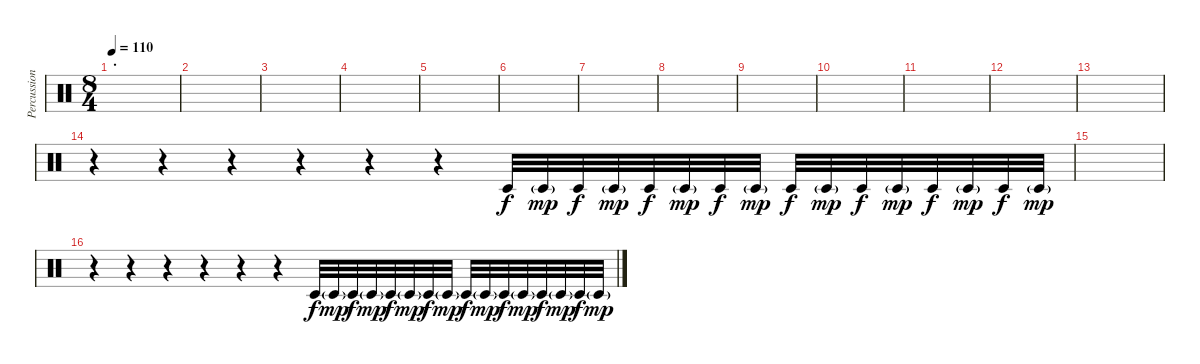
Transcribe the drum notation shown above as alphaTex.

\track ("Percussion" "Percussion") {instrument percussion}
\staff {score}
\articulation defaults
\ts (8 4)
\section ("" ".")
\tempo 110
\clef neutral
\ks c
|
|
|
|
|
|
|
|
|
|
|
|
|
r.4 r.4 r.4 r.4 r.4 r.4 "Timbale low (hit)".32{volume 7} "Timbale low (hit)"{g}.32{dy mp} "Timbale low (hit)".32{dy f volume 8} "Timbale low (hit)"{g}.32{dy mp} "Timbale low (hit)".32{dy f volume 9} "Timbale low (hit)"{g}.32{dy mp} "Timbale low (hit)".32{dy f volume 10} "Timbale low (hit)"{g}.32{dy mp} "Timbale low (hit)".32{dy f volume 11} "Timbale low (hit)"{g}.32{dy mp} "Timbale low (hit)".32{dy f volume 12} "Timbale low (hit)"{g}.32{dy mp} "Timbale low (hit)".32{dy f volume 13} "Timbale low (hit)"{g}.32{dy mp} "Timbale low (hit)".32{dy f volume 14} "Timbale low (hit)"{g}.32{dy mp} |
|
r.4 r.4 r.4 r.4 r.4 r.4 "Timbale low (hit)".32{dy f volume 7} "Timbale low (hit)"{g}.32{dy mp} "Timbale low (hit)".32{dy f volume 8} "Timbale low (hit)"{g}.32{dy mp} "Timbale low (hit)".32{dy f volume 9} "Timbale low (hit)"{g}.32{dy mp} "Timbale low (hit)".32{dy f volume 10} "Timbale low (hit)"{g}.32{dy mp} "Timbale low (hit)".32{dy f volume 11} "Timbale low (hit)"{g}.32{dy mp} "Timbale low (hit)".32{dy f volume 12} "Timbale low (hit)"{g}.32{dy mp} "Timbale low (hit)".32{dy f volume 13} "Timbale low (hit)"{g}.32{dy mp} "Timbale low (hit)".32{dy f volume 14} "Timbale low (hit)"{g}.32{dy mp}
